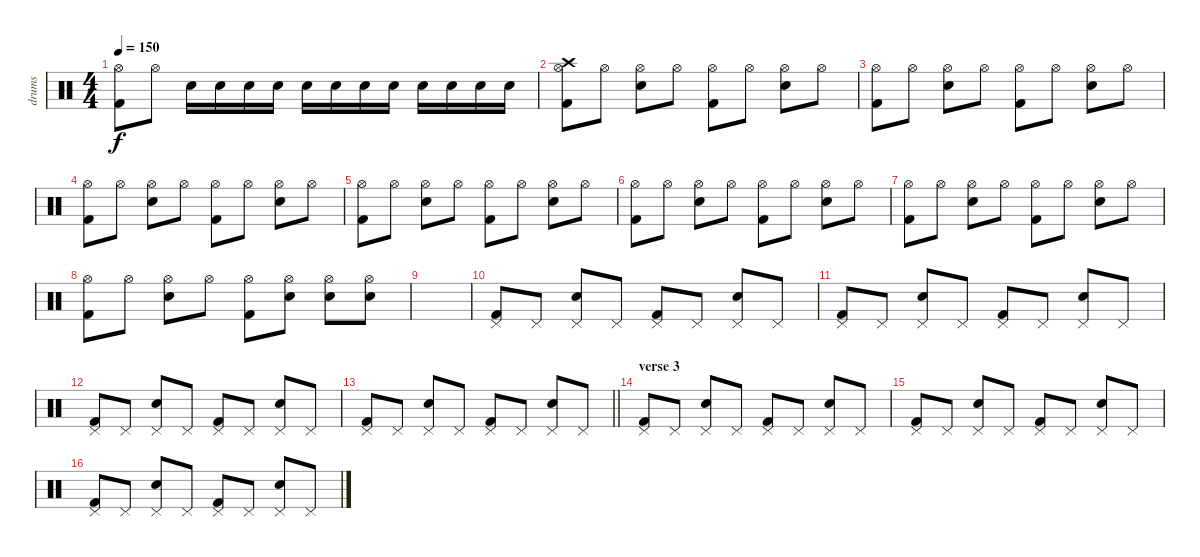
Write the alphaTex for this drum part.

\track ("drums" "drums") {instrument percussion}
\staff {score}
\articulation defaults
\ts (4 4)
\tempo 150
\clef neutral
\ks c
("Kick (hit) 2" "Hi-Hat (open)").8{dy f} "Hi-Hat (open)".8 "Electric Snare (hit)".16 "Electric Snare (hit)".16 "Electric Snare (hit)".16 "Electric Snare (hit)".16 "Electric Snare (hit)".16 "Electric Snare (hit)".16 "Electric Snare (hit)".16 "Electric Snare (hit)".16 "Electric Snare (hit)".16 "Electric Snare (hit)".16 "Electric Snare (hit)".16 "Electric Snare (hit)".16 |
("Kick (hit) 2" "Hi-Hat (open)" "Crash high (hit)").8 "Hi-Hat (open)".8 ("Electric Snare (hit)" "Hi-Hat (open)").8 "Hi-Hat (open)".8 ("Kick (hit) 2" "Hi-Hat (open)").8 "Hi-Hat (open)".8 ("Electric Snare (hit)" "Hi-Hat (open)").8 "Hi-Hat (open)".8 |
("Kick (hit) 2" "Hi-Hat (open)").8 "Hi-Hat (open)".8 ("Electric Snare (hit)" "Hi-Hat (open)").8 "Hi-Hat (open)".8 ("Kick (hit) 2" "Hi-Hat (open)").8 "Hi-Hat (open)".8 ("Electric Snare (hit)" "Hi-Hat (open)").8 "Hi-Hat (open)".8 |
("Kick (hit) 2" "Hi-Hat (open)").8 "Hi-Hat (open)".8 ("Electric Snare (hit)" "Hi-Hat (open)").8 "Hi-Hat (open)".8 ("Kick (hit) 2" "Hi-Hat (open)").8 "Hi-Hat (open)".8 ("Electric Snare (hit)" "Hi-Hat (open)").8 "Hi-Hat (open)".8 |
("Kick (hit) 2" "Hi-Hat (open)").8 "Hi-Hat (open)".8 ("Electric Snare (hit)" "Hi-Hat (open)").8 "Hi-Hat (open)".8 ("Kick (hit) 2" "Hi-Hat (open)").8 "Hi-Hat (open)".8 ("Electric Snare (hit)" "Hi-Hat (open)").8 "Hi-Hat (open)".8 |
("Kick (hit) 2" "Hi-Hat (open)").8 "Hi-Hat (open)".8 ("Electric Snare (hit)" "Hi-Hat (open)").8 "Hi-Hat (open)".8 ("Kick (hit) 2" "Hi-Hat (open)").8 "Hi-Hat (open)".8 ("Electric Snare (hit)" "Hi-Hat (open)").8 "Hi-Hat (open)".8 |
("Kick (hit) 2" "Hi-Hat (open)").8 "Hi-Hat (open)".8 ("Electric Snare (hit)" "Hi-Hat (open)").8 "Hi-Hat (open)".8 ("Kick (hit) 2" "Hi-Hat (open)").8 "Hi-Hat (open)".8 ("Electric Snare (hit)" "Hi-Hat (open)").8 "Hi-Hat (open)".8 |
("Kick (hit) 2" "Hi-Hat (open)").8 "Hi-Hat (open)".8 ("Electric Snare (hit)" "Hi-Hat (open)").8 "Hi-Hat (open)".8 ("Kick (hit) 2" "Hi-Hat (open)").8 ("Electric Snare (hit)" "Hi-Hat (open)").8 ("Electric Snare (hit)" "Hi-Hat (open)").8 ("Electric Snare (hit)" "Hi-Hat (open)").8 |
|
("Kick (hit) 2" "Pedal Hi-Hat (hit)").8{volume 12} "Pedal Hi-Hat (hit)".8 ("Electric Snare (hit)" "Pedal Hi-Hat (hit)").8 "Pedal Hi-Hat (hit)".8 ("Kick (hit) 2" "Pedal Hi-Hat (hit)").8 "Pedal Hi-Hat (hit)".8 ("Electric Snare (hit)" "Pedal Hi-Hat (hit)").8 "Pedal Hi-Hat (hit)".8 |
("Kick (hit) 2" "Pedal Hi-Hat (hit)").8 "Pedal Hi-Hat (hit)".8 ("Electric Snare (hit)" "Pedal Hi-Hat (hit)").8 "Pedal Hi-Hat (hit)".8 ("Kick (hit) 2" "Pedal Hi-Hat (hit)").8 "Pedal Hi-Hat (hit)".8 ("Electric Snare (hit)" "Pedal Hi-Hat (hit)").8 "Pedal Hi-Hat (hit)".8 |
("Kick (hit) 2" "Pedal Hi-Hat (hit)").8 "Pedal Hi-Hat (hit)".8 ("Electric Snare (hit)" "Pedal Hi-Hat (hit)").8 "Pedal Hi-Hat (hit)".8 ("Kick (hit) 2" "Pedal Hi-Hat (hit)").8 "Pedal Hi-Hat (hit)".8 ("Electric Snare (hit)" "Pedal Hi-Hat (hit)").8 "Pedal Hi-Hat (hit)".8 |
\barLineRight lightlight
("Kick (hit) 2" "Pedal Hi-Hat (hit)").8 "Pedal Hi-Hat (hit)".8 ("Electric Snare (hit)" "Pedal Hi-Hat (hit)").8 "Pedal Hi-Hat (hit)".8 ("Kick (hit) 2" "Pedal Hi-Hat (hit)").8 "Pedal Hi-Hat (hit)".8 ("Electric Snare (hit)" "Pedal Hi-Hat (hit)").8 "Pedal Hi-Hat (hit)".8 |
\section ("" "verse 3")
("Kick (hit) 2" "Pedal Hi-Hat (hit)").8 "Pedal Hi-Hat (hit)".8 ("Electric Snare (hit)" "Pedal Hi-Hat (hit)").8 "Pedal Hi-Hat (hit)".8 ("Kick (hit) 2" "Pedal Hi-Hat (hit)").8 "Pedal Hi-Hat (hit)".8 ("Electric Snare (hit)" "Pedal Hi-Hat (hit)").8 "Pedal Hi-Hat (hit)".8 |
("Kick (hit) 2" "Pedal Hi-Hat (hit)").8 "Pedal Hi-Hat (hit)".8 ("Electric Snare (hit)" "Pedal Hi-Hat (hit)").8 "Pedal Hi-Hat (hit)".8 ("Kick (hit) 2" "Pedal Hi-Hat (hit)").8 "Pedal Hi-Hat (hit)".8 ("Electric Snare (hit)" "Pedal Hi-Hat (hit)").8 "Pedal Hi-Hat (hit)".8 |
("Kick (hit) 2" "Pedal Hi-Hat (hit)").8 "Pedal Hi-Hat (hit)".8 ("Electric Snare (hit)" "Pedal Hi-Hat (hit)").8 "Pedal Hi-Hat (hit)".8 ("Kick (hit) 2" "Pedal Hi-Hat (hit)").8 "Pedal Hi-Hat (hit)".8 ("Electric Snare (hit)" "Pedal Hi-Hat (hit)").8 "Pedal Hi-Hat (hit)".8
